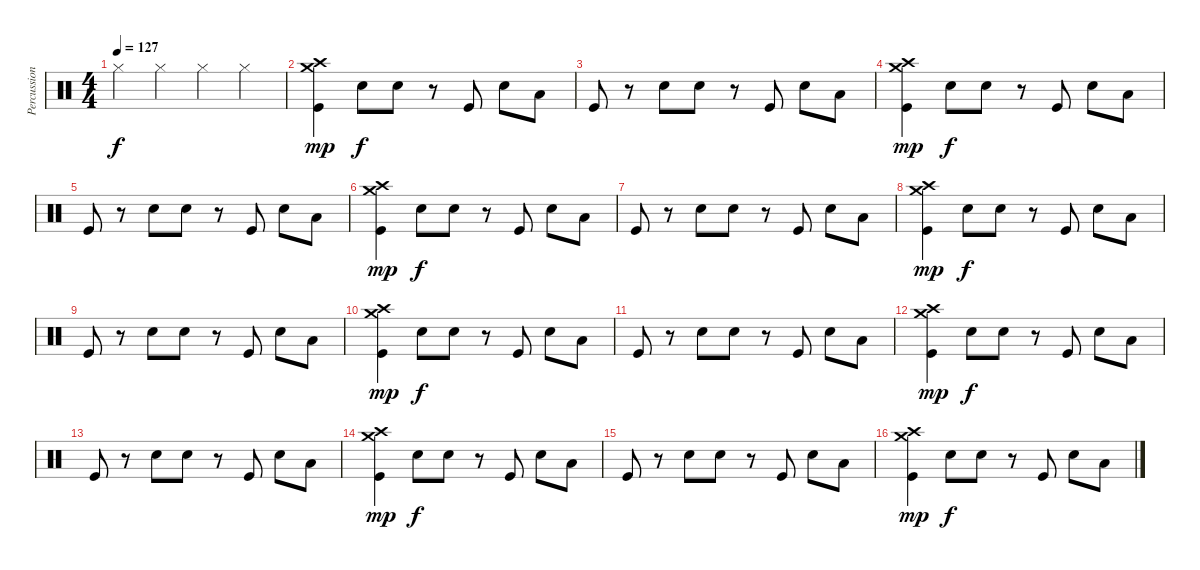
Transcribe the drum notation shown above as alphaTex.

\track ("Percussion" "Percussion") {instrument percussion}
\staff {score}
\articulation defaults
\ts (4 4)
\tempo 127
\clef neutral
\ks c "Hi-Hat (closed)".4{dy f} "Hi-Hat (closed)".4 "Hi-Hat (closed)".4 "Hi-Hat (closed)".4
|
("Crash medium (hit)" "Crash high (hit)" "Kick (hit)").4{dy mp} "Snare (hit) 2".8{dy f} "Snare (hit) 2".8 r.8 "Kick (hit)".8 "Snare (hit) 2".8 "Low Floor Tom (hit)".8 |
"Kick (hit)".8 r.8 "Snare (hit) 2".8 "Snare (hit) 2".8 r.8 "Kick (hit)".8 "Snare (hit) 2".8 "Low Floor Tom (hit)".8 |
("Crash medium (hit)" "Crash high (hit)" "Kick (hit)").4{dy mp} "Snare (hit) 2".8{dy f} "Snare (hit) 2".8 r.8 "Kick (hit)".8 "Snare (hit) 2".8 "Low Floor Tom (hit)".8 |
"Kick (hit)".8 r.8 "Snare (hit) 2".8 "Snare (hit) 2".8 r.8 "Kick (hit)".8 "Snare (hit) 2".8 "Low Floor Tom (hit)".8 |
("Crash medium (hit)" "Crash high (hit)" "Kick (hit)").4{dy mp} "Snare (hit) 2".8{dy f} "Snare (hit) 2".8 r.8 "Kick (hit)".8 "Snare (hit) 2".8 "Low Floor Tom (hit)".8 |
"Kick (hit)".8 r.8 "Snare (hit) 2".8 "Snare (hit) 2".8 r.8 "Kick (hit)".8 "Snare (hit) 2".8 "Low Floor Tom (hit)".8 |
("Crash medium (hit)" "Crash high (hit)" "Kick (hit)").4{dy mp} "Snare (hit) 2".8{dy f} "Snare (hit) 2".8 r.8 "Kick (hit)".8 "Snare (hit) 2".8 "Low Floor Tom (hit)".8 |
"Kick (hit)".8 r.8 "Snare (hit) 2".8 "Snare (hit) 2".8 r.8 "Kick (hit)".8 "Snare (hit) 2".8 "Low Floor Tom (hit)".8 |
("Crash medium (hit)" "Crash high (hit)" "Kick (hit)").4{dy mp} "Snare (hit) 2".8{dy f} "Snare (hit) 2".8 r.8 "Kick (hit)".8 "Snare (hit) 2".8 "Low Floor Tom (hit)".8 |
"Kick (hit)".8 r.8 "Snare (hit) 2".8 "Snare (hit) 2".8 r.8 "Kick (hit)".8 "Snare (hit) 2".8 "Low Floor Tom (hit)".8 |
("Crash medium (hit)" "Crash high (hit)" "Kick (hit)").4{dy mp} "Snare (hit) 2".8{dy f} "Snare (hit) 2".8 r.8 "Kick (hit)".8 "Snare (hit) 2".8 "Low Floor Tom (hit)".8 |
"Kick (hit)".8 r.8 "Snare (hit) 2".8 "Snare (hit) 2".8 r.8 "Kick (hit)".8 "Snare (hit) 2".8 "Low Floor Tom (hit)".8 |
("Crash medium (hit)" "Crash high (hit)" "Kick (hit)").4{dy mp} "Snare (hit) 2".8{dy f} "Snare (hit) 2".8 r.8 "Kick (hit)".8 "Snare (hit) 2".8 "Low Floor Tom (hit)".8 |
"Kick (hit)".8 r.8 "Snare (hit) 2".8 "Snare (hit) 2".8 r.8 "Kick (hit)".8 "Snare (hit) 2".8 "Low Floor Tom (hit)".8 |
("Crash medium (hit)" "Crash high (hit)" "Kick (hit)").4{dy mp} "Snare (hit) 2".8{dy f} "Snare (hit) 2".8 r.8 "Kick (hit)".8 "Snare (hit) 2".8 "Low Floor Tom (hit)".8
